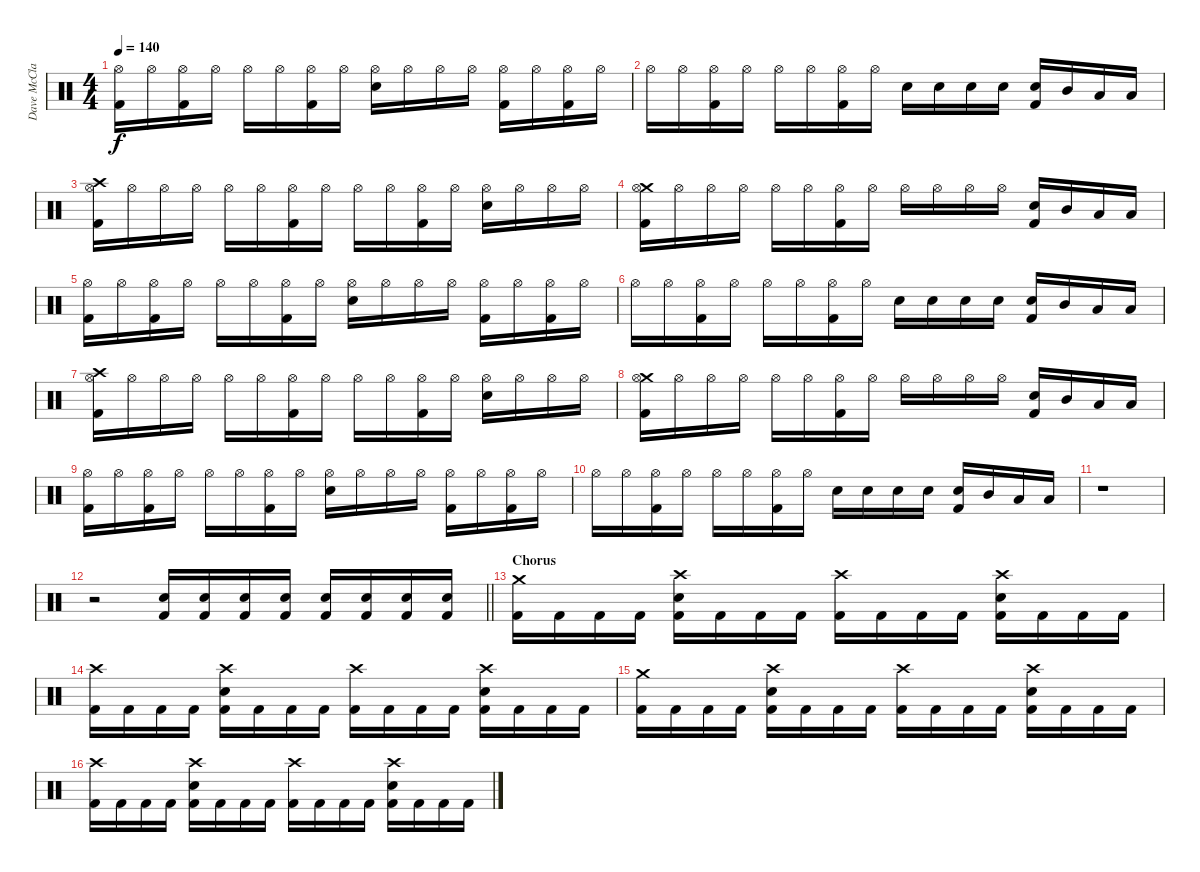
\track ("Dave McClain" "Dave McCla") {solo instrument percussion}
\staff {score}
\articulation defaults
\ts (4 4)
\tempo 140
\clef neutral
\ks c
("Hi-Hat (open)" "Kick (hit) 2").16{dy f} "Hi-Hat (open)".16 ("Hi-Hat (open)" "Kick (hit) 2").16 "Hi-Hat (open)".16 "Hi-Hat (open)".16 "Hi-Hat (open)".16 ("Hi-Hat (open)" "Kick (hit) 2").16 "Hi-Hat (open)".16 ("Hi-Hat (open)" "Electric Snare (hit)").16 "Hi-Hat (open)".16 "Hi-Hat (open)".16 "Hi-Hat (open)".16 ("Hi-Hat (open)" "Kick (hit) 2").16 "Hi-Hat (open)".16 ("Hi-Hat (open)" "Kick (hit) 2").16 "Hi-Hat (open)".16 |
"Hi-Hat (open)".16 "Hi-Hat (open)".16 ("Hi-Hat (open)" "Kick (hit) 2").16 "Hi-Hat (open)".16 "Hi-Hat (open)".16 "Hi-Hat (open)".16 ("Hi-Hat (open)" "Kick (hit) 2").16 "Hi-Hat (open)".16 "Electric Snare (hit)".16 "Electric Snare (hit)".16 "Electric Snare (hit)".16 "Electric Snare (hit)".16 ("Electric Snare (hit)" "Kick (hit) 2").16 "Mid Tom (hit)".16 "Low Tom (hit)".16 "Low Floor Tom (hit)".16 |
("Crash high (hit)" "Hi-Hat (open)" "Kick (hit) 2").16 "Hi-Hat (open)".16 "Hi-Hat (open)".16 "Hi-Hat (open)".16 "Hi-Hat (open)".16 "Hi-Hat (open)".16 ("Hi-Hat (open)" "Kick (hit) 2").16 "Hi-Hat (open)".16 "Hi-Hat (open)".16 "Hi-Hat (open)".16 ("Hi-Hat (open)" "Kick (hit) 2").16 "Hi-Hat (open)".16 ("Hi-Hat (open)" "Electric Snare (hit)").16 "Hi-Hat (open)".16 "Hi-Hat (open)".16 "Hi-Hat (open)".16 |
("Crash medium (hit)" "Hi-Hat (open)" "Kick (hit) 2").16 "Hi-Hat (open)".16 "Hi-Hat (open)".16 "Hi-Hat (open)".16 "Hi-Hat (open)".16 "Hi-Hat (open)".16 ("Hi-Hat (open)" "Kick (hit) 2").16 "Hi-Hat (open)".16 "Hi-Hat (open)".16 "Hi-Hat (open)".16 "Hi-Hat (open)".16 "Hi-Hat (open)".16 ("Electric Snare (hit)" "Kick (hit) 2").16 "Mid Tom (hit)".16 "Low Tom (hit)".16 "Low Floor Tom (hit)".16 |
("Hi-Hat (open)" "Kick (hit) 2").16 "Hi-Hat (open)".16 ("Hi-Hat (open)" "Kick (hit) 2").16 "Hi-Hat (open)".16 "Hi-Hat (open)".16 "Hi-Hat (open)".16 ("Hi-Hat (open)" "Kick (hit) 2").16 "Hi-Hat (open)".16 ("Hi-Hat (open)" "Electric Snare (hit)").16 "Hi-Hat (open)".16 "Hi-Hat (open)".16 "Hi-Hat (open)".16 ("Hi-Hat (open)" "Kick (hit) 2").16 "Hi-Hat (open)".16 ("Hi-Hat (open)" "Kick (hit) 2").16 "Hi-Hat (open)".16 |
"Hi-Hat (open)".16 "Hi-Hat (open)".16 ("Hi-Hat (open)" "Kick (hit) 2").16 "Hi-Hat (open)".16 "Hi-Hat (open)".16 "Hi-Hat (open)".16 ("Hi-Hat (open)" "Kick (hit) 2").16 "Hi-Hat (open)".16 "Electric Snare (hit)".16 "Electric Snare (hit)".16 "Electric Snare (hit)".16 "Electric Snare (hit)".16 ("Electric Snare (hit)" "Kick (hit) 2").16 "Mid Tom (hit)".16 "Low Tom (hit)".16 "Low Floor Tom (hit)".16 |
("Crash high (hit)" "Hi-Hat (open)" "Kick (hit) 2").16 "Hi-Hat (open)".16 "Hi-Hat (open)".16 "Hi-Hat (open)".16 "Hi-Hat (open)".16 "Hi-Hat (open)".16 ("Hi-Hat (open)" "Kick (hit) 2").16 "Hi-Hat (open)".16 "Hi-Hat (open)".16 "Hi-Hat (open)".16 ("Hi-Hat (open)" "Kick (hit) 2").16 "Hi-Hat (open)".16 ("Hi-Hat (open)" "Electric Snare (hit)").16 "Hi-Hat (open)".16 "Hi-Hat (open)".16 "Hi-Hat (open)".16 |
("Crash medium (hit)" "Hi-Hat (open)" "Kick (hit) 2").16 "Hi-Hat (open)".16 "Hi-Hat (open)".16 "Hi-Hat (open)".16 "Hi-Hat (open)".16 "Hi-Hat (open)".16 ("Hi-Hat (open)" "Kick (hit) 2").16 "Hi-Hat (open)".16 "Hi-Hat (open)".16 "Hi-Hat (open)".16 "Hi-Hat (open)".16 "Hi-Hat (open)".16 ("Electric Snare (hit)" "Kick (hit) 2").16 "Mid Tom (hit)".16 "Low Tom (hit)".16 "Low Floor Tom (hit)".16 |
("Hi-Hat (open)" "Kick (hit) 2").16 "Hi-Hat (open)".16 ("Hi-Hat (open)" "Kick (hit) 2").16 "Hi-Hat (open)".16 "Hi-Hat (open)".16 "Hi-Hat (open)".16 ("Hi-Hat (open)" "Kick (hit) 2").16 "Hi-Hat (open)".16 ("Hi-Hat (open)" "Electric Snare (hit)").16 "Hi-Hat (open)".16 "Hi-Hat (open)".16 "Hi-Hat (open)".16 ("Hi-Hat (open)" "Kick (hit) 2").16 "Hi-Hat (open)".16 ("Hi-Hat (open)" "Kick (hit) 2").16 "Hi-Hat (open)".16 |
"Hi-Hat (open)".16 "Hi-Hat (open)".16 ("Hi-Hat (open)" "Kick (hit) 2").16 "Hi-Hat (open)".16 "Hi-Hat (open)".16 "Hi-Hat (open)".16 ("Hi-Hat (open)" "Kick (hit) 2").16 "Hi-Hat (open)".16 "Electric Snare (hit)".16 "Electric Snare (hit)".16 "Electric Snare (hit)".16 "Electric Snare (hit)".16 ("Electric Snare (hit)" "Kick (hit) 2").16 "Mid Tom (hit)".16 "Low Tom (hit)".16 "Low Floor Tom (hit)".16 |
r.1 |
\barLineRight lightlight
r.2 ("Electric Snare (hit)" "Kick (hit) 2").16 ("Electric Snare (hit)" "Kick (hit) 2").16 ("Electric Snare (hit)" "Kick (hit) 2").16 ("Electric Snare (hit)" "Kick (hit) 2").16 ("Electric Snare (hit)" "Kick (hit) 2").16 ("Electric Snare (hit)" "Kick (hit) 2").16 ("Electric Snare (hit)" "Kick (hit) 2").16 ("Electric Snare (hit)" "Kick (hit) 2").16 |
\section ("" "Chorus")
("Crash medium (hit)" "Kick (hit) 2").16 "Kick (hit) 2".16 "Kick (hit) 2".16 "Kick (hit) 2".16 ("Crash high (hit)" "Electric Snare (hit)" "Kick (hit) 2").16 "Kick (hit) 2".16 "Kick (hit) 2".16 "Kick (hit) 2".16 ("Crash high (hit)" "Kick (hit) 2").16 "Kick (hit) 2".16 "Kick (hit) 2".16 "Kick (hit) 2".16 ("Crash high (hit)" "Electric Snare (hit)" "Kick (hit) 2").16 "Kick (hit) 2".16 "Kick (hit) 2".16 "Kick (hit) 2".16 |
("Crash high (hit)" "Kick (hit) 2").16 "Kick (hit) 2".16 "Kick (hit) 2".16 "Kick (hit) 2".16 ("Crash high (hit)" "Electric Snare (hit)" "Kick (hit) 2").16 "Kick (hit) 2".16 "Kick (hit) 2".16 "Kick (hit) 2".16 ("Crash high (hit)" "Kick (hit) 2").16 "Kick (hit) 2".16 "Kick (hit) 2".16 "Kick (hit) 2".16 ("Crash high (hit)" "Electric Snare (hit)" "Kick (hit) 2").16 "Kick (hit) 2".16 "Kick (hit) 2".16 "Kick (hit) 2".16 |
("Crash medium (hit)" "Kick (hit) 2").16 "Kick (hit) 2".16 "Kick (hit) 2".16 "Kick (hit) 2".16 ("Crash high (hit)" "Electric Snare (hit)" "Kick (hit) 2").16 "Kick (hit) 2".16 "Kick (hit) 2".16 "Kick (hit) 2".16 ("Crash high (hit)" "Kick (hit) 2").16 "Kick (hit) 2".16 "Kick (hit) 2".16 "Kick (hit) 2".16 ("Crash high (hit)" "Electric Snare (hit)" "Kick (hit) 2").16 "Kick (hit) 2".16 "Kick (hit) 2".16 "Kick (hit) 2".16 |
("Crash high (hit)" "Kick (hit) 2").16 "Kick (hit) 2".16 "Kick (hit) 2".16 "Kick (hit) 2".16 ("Crash high (hit)" "Electric Snare (hit)" "Kick (hit) 2").16 "Kick (hit) 2".16 "Kick (hit) 2".16 "Kick (hit) 2".16 ("Crash high (hit)" "Kick (hit) 2").16 "Kick (hit) 2".16 "Kick (hit) 2".16 "Kick (hit) 2".16 ("Crash high (hit)" "Electric Snare (hit)" "Kick (hit) 2").16 "Kick (hit) 2".16 "Kick (hit) 2".16 "Kick (hit) 2".16
